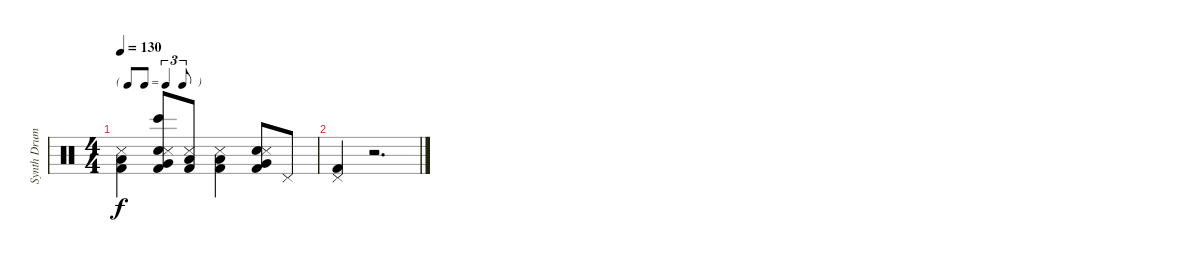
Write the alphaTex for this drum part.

\track ("Synth Drums (Alan Wilder)" "Synth Drum") {instrument percussion}
\staff {score}
\articulation defaults
\ts (4 4)
\tf triplet8th
\tempo 130
\clef neutral
\ks c
("Low Floor Tom (hit)" "Kick (hit) 2" "Snare (side stick) 3").4{dy f} ("Bongo High (hit)" "Electric Snare (hit)" "Very Low Tom (hit)" "Kick (hit) 2" "Snare (side stick) 3").8 ("Low Floor Tom (hit)" "Kick (hit) 2" "Snare (side stick) 3").8 ("Low Floor Tom (hit)" "Kick (hit) 2" "Snare (side stick) 3").4 ("Electric Snare (hit)" "Very Low Tom (hit)" "Kick (hit) 2" "Snare (side stick) 3").8 "Pedal Hi-Hat (hit)".8 |
("Pedal Hi-Hat (hit)" "Kick (hit) 2").4 r.2{d}
